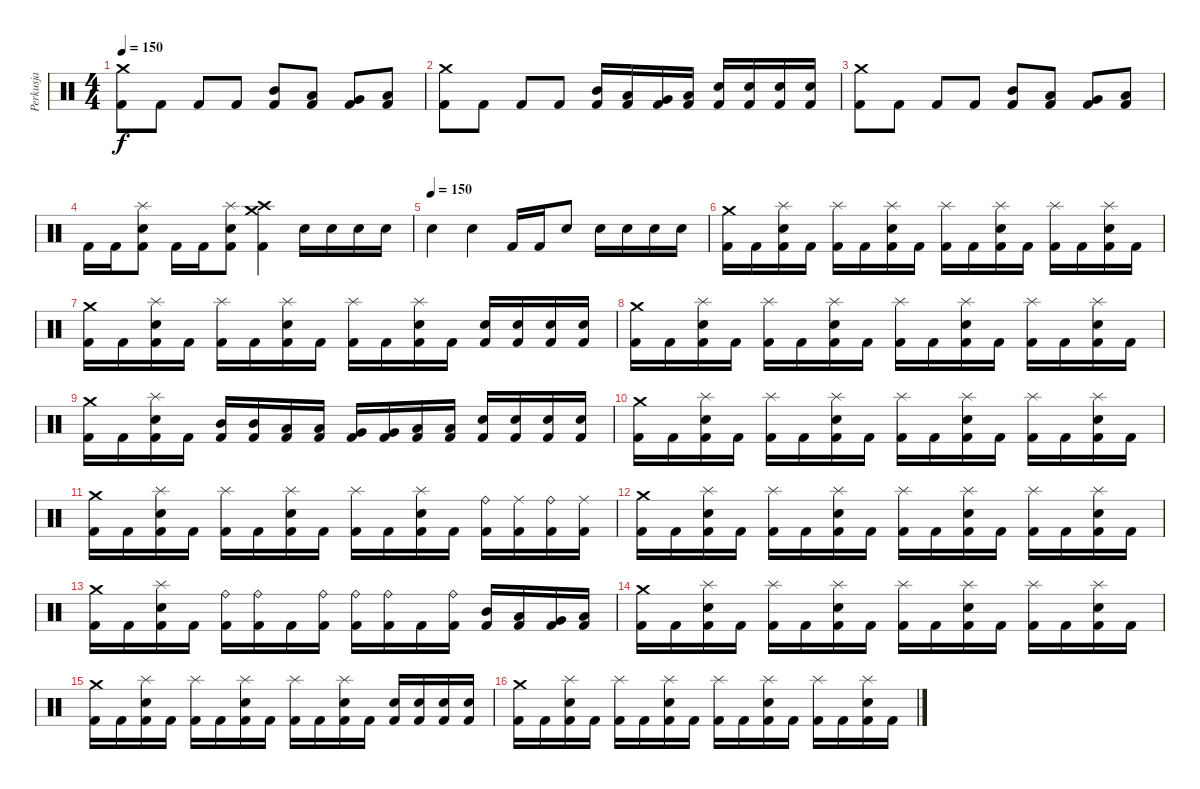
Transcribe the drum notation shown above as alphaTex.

\track ("Perkusja" "Perkusja") {instrument percussion}
\staff {score}
\articulation defaults
\ts (4 4)
\tempo 150
\clef neutral
\ks c
("Crash medium (hit)" "Kick (hit) 2").8{dy f} "Kick (hit) 2".8 "Kick (hit) 2".8 "Kick (hit) 2".8 ("Mid Tom (hit)" "Kick (hit) 2").8 ("Low Tom (hit)" "Kick (hit) 2").8 ("Very Low Tom (hit)" "Kick (hit) 2").8 ("Low Floor Tom (hit)" "Kick (hit) 2").8 |
("Crash medium (hit)" "Kick (hit) 2").8 "Kick (hit) 2".8 "Kick (hit) 2".8 "Kick (hit) 2".8 ("Mid Tom (hit)" "Kick (hit) 2").16 ("Low Tom (hit)" "Kick (hit) 2").16 ("Very Low Tom (hit)" "Kick (hit) 2").16 ("Low Floor Tom (hit)" "Kick (hit) 2").16 ("Electric Snare (hit)" "Kick (hit) 2").16 ("Electric Snare (hit)" "Kick (hit) 2").16 ("Electric Snare (hit)" "Kick (hit) 2").16 ("Electric Snare (hit)" "Kick (hit) 2").16 |
("Crash medium (hit)" "Kick (hit) 2").8 "Kick (hit) 2".8 "Kick (hit) 2".8 "Kick (hit) 2".8 ("Mid Tom (hit)" "Kick (hit) 2").8 ("Low Tom (hit)" "Kick (hit) 2").8 ("Very Low Tom (hit)" "Kick (hit) 2").8 ("Low Floor Tom (hit)" "Kick (hit) 2").8 |
"Kick (hit) 2".16 "Kick (hit) 2".16 ("Splash (hit)" "Electric Snare (hit)" "Kick (hit) 2").8 "Kick (hit) 2".16 "Kick (hit) 2".16 ("Splash (hit)" "Electric Snare (hit)" "Kick (hit) 2").8 ("Crash medium (hit)" "Crash high (hit)" "Kick (hit) 2").4 "Electric Snare (hit)".16 "Electric Snare (hit)".16 "Electric Snare (hit)".16 "Electric Snare (hit)".16 |
\tempo (150)
"Electric Snare (hit)".4 "Electric Snare (hit)".4 "Kick (hit) 2".16 "Kick (hit) 2".16 "Electric Snare (hit)".8 "Electric Snare (hit)".16 "Electric Snare (hit)".16 "Electric Snare (hit)".16 "Electric Snare (hit)".16 |
("Crash medium (hit)" "Kick (hit) 2").16 "Kick (hit) 2".16 ("Splash (hit)" "Electric Snare (hit)" "Kick (hit) 2").16 "Kick (hit) 2".16 ("Splash (hit)" "Kick (hit) 2").16 "Kick (hit) 2".16 ("Splash (hit)" "Electric Snare (hit)" "Kick (hit) 2").16 "Kick (hit) 2".16 ("Splash (hit)" "Kick (hit) 2").16 "Kick (hit) 2".16 ("Splash (hit)" "Electric Snare (hit)" "Kick (hit) 2").16 "Kick (hit) 2".16 ("Splash (hit)" "Kick (hit) 2").16 "Kick (hit) 2".16 ("Splash (hit)" "Electric Snare (hit)" "Kick (hit) 2").16 "Kick (hit) 2".16 |
("Crash medium (hit)" "Kick (hit) 2").16 "Kick (hit) 2".16 ("Splash (hit)" "Electric Snare (hit)" "Kick (hit) 2").16 "Kick (hit) 2".16 ("Splash (hit)" "Kick (hit) 2").16 "Kick (hit) 2".16 ("Splash (hit)" "Electric Snare (hit)" "Kick (hit) 2").16 "Kick (hit) 2".16 ("Splash (hit)" "Kick (hit) 2").16 "Kick (hit) 2".16 ("Splash (hit)" "Electric Snare (hit)" "Kick (hit) 2").16 "Kick (hit) 2".16 ("Electric Snare (hit)" "Kick (hit) 2").16 ("Electric Snare (hit)" "Kick (hit) 2").16 ("Electric Snare (hit)" "Kick (hit) 2").16 ("Electric Snare (hit)" "Kick (hit) 2").16 |
("Crash medium (hit)" "Kick (hit) 2").16 "Kick (hit) 2".16 ("Splash (hit)" "Electric Snare (hit)" "Kick (hit) 2").16 "Kick (hit) 2".16 ("Splash (hit)" "Kick (hit) 2").16 "Kick (hit) 2".16 ("Splash (hit)" "Electric Snare (hit)" "Kick (hit) 2").16 "Kick (hit) 2".16 ("Splash (hit)" "Kick (hit) 2").16 "Kick (hit) 2".16 ("Splash (hit)" "Electric Snare (hit)" "Kick (hit) 2").16 "Kick (hit) 2".16 ("Splash (hit)" "Kick (hit) 2").16 "Kick (hit) 2".16 ("Splash (hit)" "Electric Snare (hit)" "Kick (hit) 2").16 "Kick (hit) 2".16 |
("Crash medium (hit)" "Kick (hit) 2").16 "Kick (hit) 2".16 ("Splash (hit)" "Electric Snare (hit)" "Kick (hit) 2").16 "Kick (hit) 2".16 ("Mid Tom (hit)" "Kick (hit) 2").16 ("Mid Tom (hit)" "Kick (hit) 2").16 ("Low Tom (hit)" "Kick (hit) 2").16 ("Low Tom (hit)" "Kick (hit) 2").16 ("Very Low Tom (hit)" "Kick (hit) 2").16 ("Very Low Tom (hit)" "Kick (hit) 2").16 ("Low Floor Tom (hit)" "Kick (hit) 2").16 ("Low Floor Tom (hit)" "Kick (hit) 2").16 ("Electric Snare (hit)" "Kick (hit) 2").16 ("Electric Snare (hit)" "Kick (hit) 2").16 ("Electric Snare (hit)" "Kick (hit) 2").16 ("Electric Snare (hit)" "Kick (hit) 2").16 |
("Crash medium (hit)" "Kick (hit) 2").16 "Kick (hit) 2".16 ("Splash (hit)" "Electric Snare (hit)" "Kick (hit) 2").16 "Kick (hit) 2".16 ("Splash (hit)" "Kick (hit) 2").16 "Kick (hit) 2".16 ("Splash (hit)" "Electric Snare (hit)" "Kick (hit) 2").16 "Kick (hit) 2".16 ("Splash (hit)" "Kick (hit) 2").16 "Kick (hit) 2".16 ("Splash (hit)" "Electric Snare (hit)" "Kick (hit) 2").16 "Kick (hit) 2".16 ("Splash (hit)" "Kick (hit) 2").16 "Kick (hit) 2".16 ("Splash (hit)" "Electric Snare (hit)" "Kick (hit) 2").16 "Kick (hit) 2".16 |
("Crash medium (hit)" "Kick (hit) 2").16 "Kick (hit) 2".16 ("Splash (hit)" "Electric Snare (hit)" "Kick (hit) 2").16 "Kick (hit) 2".16 ("Splash (hit)" "Kick (hit) 2").16 "Kick (hit) 2".16 ("Splash (hit)" "Electric Snare (hit)" "Kick (hit) 2").16 "Kick (hit) 2".16 ("Splash (hit)" "Kick (hit) 2").16 "Kick (hit) 2".16 ("Splash (hit)" "Electric Snare (hit)" "Kick (hit) 2").16 "Kick (hit) 2".16 ("Ride (bell)" "Kick (hit) 2").16 ("Ride (middle)" "Kick (hit) 2").16 ("Ride (bell)" "Kick (hit) 2").16 ("Ride (middle)" "Kick (hit) 2").16 |
("Crash medium (hit)" "Kick (hit) 2").16 "Kick (hit) 2".16 ("Splash (hit)" "Electric Snare (hit)" "Kick (hit) 2").16 "Kick (hit) 2".16 ("Splash (hit)" "Kick (hit) 2").16 "Kick (hit) 2".16 ("Splash (hit)" "Electric Snare (hit)" "Kick (hit) 2").16 "Kick (hit) 2".16 ("Splash (hit)" "Kick (hit) 2").16 "Kick (hit) 2".16 ("Splash (hit)" "Electric Snare (hit)" "Kick (hit) 2").16 "Kick (hit) 2".16 ("Splash (hit)" "Kick (hit) 2").16 "Kick (hit) 2".16 ("Splash (hit)" "Electric Snare (hit)" "Kick (hit) 2").16 "Kick (hit) 2".16 |
("Crash medium (hit)" "Kick (hit) 2").16 "Kick (hit) 2".16 ("Splash (hit)" "Electric Snare (hit)" "Kick (hit) 2").16 "Kick (hit) 2".16 ("Ride (bell)" "Kick (hit) 2").16 ("Ride (bell)" "Kick (hit) 2").16 "Kick (hit) 2".16 ("Ride (bell)" "Kick (hit) 2").16 ("Ride (bell)" "Kick (hit) 2").16 ("Ride (bell)" "Kick (hit) 2").16 "Kick (hit) 2".16 ("Ride (bell)" "Kick (hit) 2").16 ("Mid Tom (hit)" "Kick (hit) 2").16 ("Low Tom (hit)" "Kick (hit) 2").16 ("Very Low Tom (hit)" "Kick (hit) 2").16 ("Low Floor Tom (hit)" "Kick (hit) 2").16 |
("Crash medium (hit)" "Kick (hit) 2").16 "Kick (hit) 2".16 ("Splash (hit)" "Electric Snare (hit)" "Kick (hit) 2").16 "Kick (hit) 2".16 ("Splash (hit)" "Kick (hit) 2").16 "Kick (hit) 2".16 ("Splash (hit)" "Electric Snare (hit)" "Kick (hit) 2").16 "Kick (hit) 2".16 ("Splash (hit)" "Kick (hit) 2").16 "Kick (hit) 2".16 ("Splash (hit)" "Electric Snare (hit)" "Kick (hit) 2").16 "Kick (hit) 2".16 ("Splash (hit)" "Kick (hit) 2").16 "Kick (hit) 2".16 ("Splash (hit)" "Electric Snare (hit)" "Kick (hit) 2").16 "Kick (hit) 2".16 |
("Crash medium (hit)" "Kick (hit) 2").16 "Kick (hit) 2".16 ("Splash (hit)" "Electric Snare (hit)" "Kick (hit) 2").16 "Kick (hit) 2".16 ("Splash (hit)" "Kick (hit) 2").16 "Kick (hit) 2".16 ("Splash (hit)" "Electric Snare (hit)" "Kick (hit) 2").16 "Kick (hit) 2".16 ("Splash (hit)" "Kick (hit) 2").16 "Kick (hit) 2".16 ("Splash (hit)" "Electric Snare (hit)" "Kick (hit) 2").16 "Kick (hit) 2".16 ("Electric Snare (hit)" "Kick (hit) 2").16 ("Electric Snare (hit)" "Kick (hit) 2").16 ("Electric Snare (hit)" "Kick (hit) 2").16 ("Electric Snare (hit)" "Kick (hit) 2").16 |
("Crash medium (hit)" "Kick (hit) 2").16 "Kick (hit) 2".16 ("Splash (hit)" "Electric Snare (hit)" "Kick (hit) 2").16 "Kick (hit) 2".16 ("Splash (hit)" "Kick (hit) 2").16 "Kick (hit) 2".16 ("Splash (hit)" "Electric Snare (hit)" "Kick (hit) 2").16 "Kick (hit) 2".16 ("Splash (hit)" "Kick (hit) 2").16 "Kick (hit) 2".16 ("Splash (hit)" "Electric Snare (hit)" "Kick (hit) 2").16 "Kick (hit) 2".16 ("Splash (hit)" "Kick (hit) 2").16 "Kick (hit) 2".16 ("Splash (hit)" "Electric Snare (hit)" "Kick (hit) 2").16 "Kick (hit) 2".16
